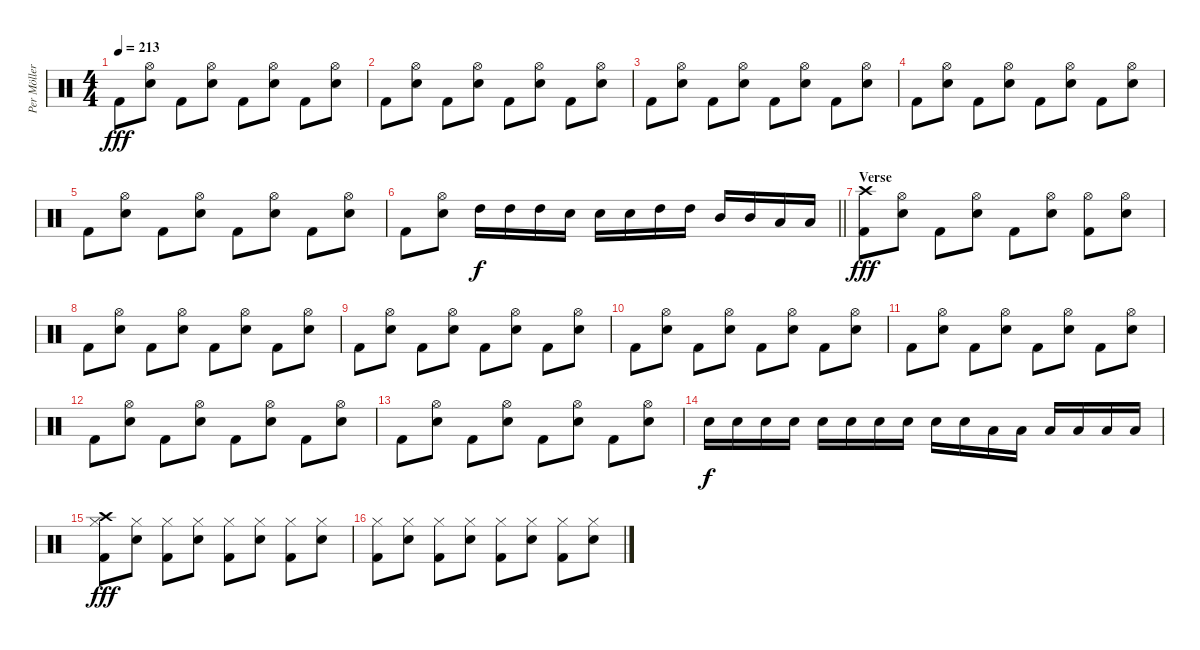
\track ("Per Möller Jensen" "Per Möller") {instrument percussion}
\staff {score}
\articulation defaults
\ts (4 4)
\tempo 213
\clef neutral
\ks c "Kick (hit) 2".8{dy fff}
("Hi-Hat (open)" "Electric Snare (hit)").8 "Kick (hit) 2".8 ("Hi-Hat (open)" "Electric Snare (hit)").8 "Kick (hit) 2".8 ("Hi-Hat (open)" "Electric Snare (hit)").8 "Kick (hit) 2".8 ("Hi-Hat (open)" "Electric Snare (hit)").8 |
"Kick (hit) 2".8 ("Hi-Hat (open)" "Electric Snare (hit)").8 "Kick (hit) 2".8 ("Hi-Hat (open)" "Electric Snare (hit)").8 "Kick (hit) 2".8 ("Hi-Hat (open)" "Electric Snare (hit)").8 "Kick (hit) 2".8 ("Hi-Hat (open)" "Electric Snare (hit)").8 |
"Kick (hit) 2".8 ("Hi-Hat (open)" "Electric Snare (hit)").8 "Kick (hit) 2".8 ("Hi-Hat (open)" "Electric Snare (hit)").8 "Kick (hit) 2".8 ("Hi-Hat (open)" "Electric Snare (hit)").8 "Kick (hit) 2".8 ("Hi-Hat (open)" "Electric Snare (hit)").8 |
"Kick (hit) 2".8 ("Hi-Hat (open)" "Electric Snare (hit)").8 "Kick (hit) 2".8 ("Hi-Hat (open)" "Electric Snare (hit)").8 "Kick (hit) 2".8 ("Hi-Hat (open)" "Electric Snare (hit)").8 "Kick (hit) 2".8 ("Hi-Hat (open)" "Electric Snare (hit)").8 |
"Kick (hit) 2".8 ("Hi-Hat (open)" "Electric Snare (hit)").8 "Kick (hit) 2".8 ("Hi-Hat (open)" "Electric Snare (hit)").8 "Kick (hit) 2".8 ("Hi-Hat (open)" "Electric Snare (hit)").8 "Kick (hit) 2".8 ("Hi-Hat (open)" "Electric Snare (hit)").8 |
\barLineRight lightlight "Kick (hit) 2".8
("Hi-Hat (open)" "Electric Snare (hit)").8 "High Tom (hit)".16{dy f} "High Tom (hit)".16 "High Tom (hit)".16 "Electric Snare (hit)".16 "Electric Snare (hit)".16 "Electric Snare (hit)".16 "High Tom (hit)".16 "High Tom (hit)".16 "Mid Tom (hit)".16 "Mid Tom (hit)".16 "Low Tom (hit)".16 "Low Tom (hit)".16 |
\section ("" "Verse")
("Crash high (hit)" "Kick (hit) 2").8{dy fff} ("Hi-Hat (open)" "Electric Snare (hit)").8 "Kick (hit) 2".8 ("Hi-Hat (open)" "Electric Snare (hit)").8 "Kick (hit) 2".8 ("Hi-Hat (open)" "Electric Snare (hit)").8 ("Hi-Hat (open)" "Kick (hit) 2").8 ("Hi-Hat (open)" "Electric Snare (hit)").8 |
"Kick (hit) 2".8 ("Hi-Hat (open)" "Electric Snare (hit)").8 "Kick (hit) 2".8 ("Hi-Hat (open)" "Electric Snare (hit)").8 "Kick (hit) 2".8 ("Hi-Hat (open)" "Electric Snare (hit)").8 "Kick (hit) 2".8 ("Hi-Hat (open)" "Electric Snare (hit)").8 |
"Kick (hit) 2".8 ("Hi-Hat (open)" "Electric Snare (hit)").8 "Kick (hit) 2".8 ("Hi-Hat (open)" "Electric Snare (hit)").8 "Kick (hit) 2".8 ("Hi-Hat (open)" "Electric Snare (hit)").8 "Kick (hit) 2".8 ("Hi-Hat (open)" "Electric Snare (hit)").8 |
"Kick (hit) 2".8 ("Hi-Hat (open)" "Electric Snare (hit)").8 "Kick (hit) 2".8 ("Hi-Hat (open)" "Electric Snare (hit)").8 "Kick (hit) 2".8 ("Hi-Hat (open)" "Electric Snare (hit)").8 "Kick (hit) 2".8 ("Hi-Hat (open)" "Electric Snare (hit)").8 |
"Kick (hit) 2".8 ("Hi-Hat (open)" "Electric Snare (hit)").8 "Kick (hit) 2".8 ("Hi-Hat (open)" "Electric Snare (hit)").8 "Kick (hit) 2".8 ("Hi-Hat (open)" "Electric Snare (hit)").8 "Kick (hit) 2".8 ("Hi-Hat (open)" "Electric Snare (hit)").8 |
"Kick (hit) 2".8 ("Hi-Hat (open)" "Electric Snare (hit)").8 "Kick (hit) 2".8 ("Hi-Hat (open)" "Electric Snare (hit)").8 "Kick (hit) 2".8 ("Hi-Hat (open)" "Electric Snare (hit)").8 "Kick (hit) 2".8 ("Hi-Hat (open)" "Electric Snare (hit)").8 |
"Kick (hit) 2".8 ("Hi-Hat (open)" "Electric Snare (hit)").8 "Kick (hit) 2".8 ("Hi-Hat (open)" "Electric Snare (hit)").8 "Kick (hit) 2".8 ("Hi-Hat (open)" "Electric Snare (hit)").8 "Kick (hit) 2".8 ("Hi-Hat (open)" "Electric Snare (hit)").8 |
"Electric Snare (hit)".16{dy f} "Electric Snare (hit)".16 "Electric Snare (hit)".16 "Electric Snare (hit)".16 "Electric Snare (hit)".16 "Electric Snare (hit)".16 "Electric Snare (hit)".16 "Electric Snare (hit)".16 "Electric Snare (hit)".16 "Electric Snare (hit)".16 "Low Tom (hit)".16 "Low Tom (hit)".16 "Low Tom (hit)".16 "Low Tom (hit)".16 "Low Tom (hit)".16 "Low Tom (hit)".16 |
("Crash high (hit)" "Hi-Hat (closed)" "Kick (hit) 2").8{dy fff} ("Hi-Hat (closed)" "Electric Snare (hit)").8 ("Hi-Hat (closed)" "Kick (hit) 2").8 ("Hi-Hat (closed)" "Electric Snare (hit)").8 ("Hi-Hat (closed)" "Kick (hit) 2").8 ("Hi-Hat (closed)" "Electric Snare (hit)").8 ("Hi-Hat (closed)" "Kick (hit) 2").8 ("Hi-Hat (closed)" "Electric Snare (hit)").8 |
("Hi-Hat (closed)" "Kick (hit) 2").8 ("Hi-Hat (closed)" "Electric Snare (hit)").8 ("Hi-Hat (closed)" "Kick (hit) 2").8 ("Hi-Hat (closed)" "Electric Snare (hit)").8 ("Hi-Hat (closed)" "Kick (hit) 2").8 ("Hi-Hat (closed)" "Electric Snare (hit)").8 ("Hi-Hat (closed)" "Kick (hit) 2").8 ("Hi-Hat (closed)" "Electric Snare (hit)").8
